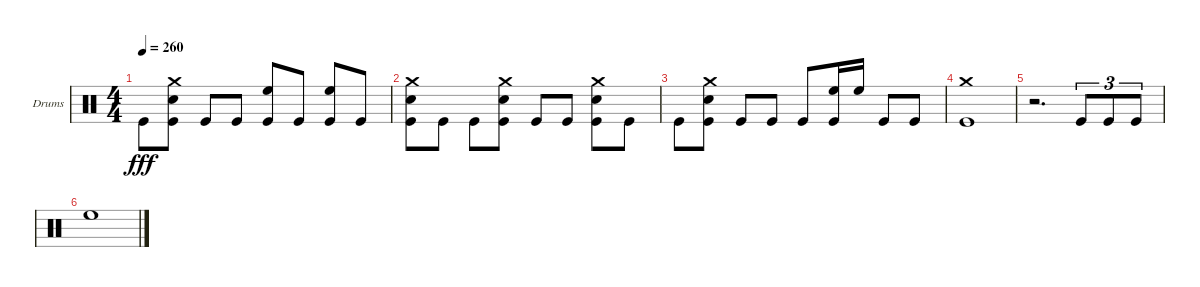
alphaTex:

\defaultSystemsLayout 4
\bracketExtendMode groupsimilarinstruments
\firstSystemTrackNameOrientation horizontal
\otherSystemsTrackNameOrientation horizontal
\track ("Stefan Schwarzmann" "Drums") {instrument percussion}
\staff {score}
\articulation defaults
\ts (4 4)
\tempo 260
\clef neutral
\ks c "Kick (hit)".8{dy fff}
("Kick (hit)" "Snare (hit) 2" "Crash medium (hit)").8 "Kick (hit)".8 "Kick (hit)".8 ("Kick (hit)" "High Floor Tom (hit)").8 "Kick (hit)".8 ("Kick (hit)" "High Floor Tom (hit)").8 "Kick (hit)".8 |
("Kick (hit)" "Snare (hit) 2" "Crash medium (hit)").8 "Kick (hit)".8 "Kick (hit)".8 ("Kick (hit)" "Snare (hit) 2" "Crash medium (hit)").8 "Kick (hit)".8 "Kick (hit)".8 ("Kick (hit)" "Snare (hit) 2" "Crash medium (hit)").8 "Kick (hit)".8 |
"Kick (hit)".8 ("Kick (hit)" "Snare (hit) 2" "Crash medium (hit)").8 "Kick (hit)".8 "Kick (hit)".8 "Kick (hit)".8 ("Kick (hit)" "High Floor Tom (hit)").16 "High Floor Tom (hit)".16 "Kick (hit)".8 "Kick (hit)".8 |
("Kick (hit)" "Crash medium (hit)").1 |
r.2{d} "Kick (hit)".8{tu (3 2)} "Kick (hit)".8{tu (3 2)} "Kick (hit)".8{tu (3 2)} |
"High Floor Tom (hit)".1
